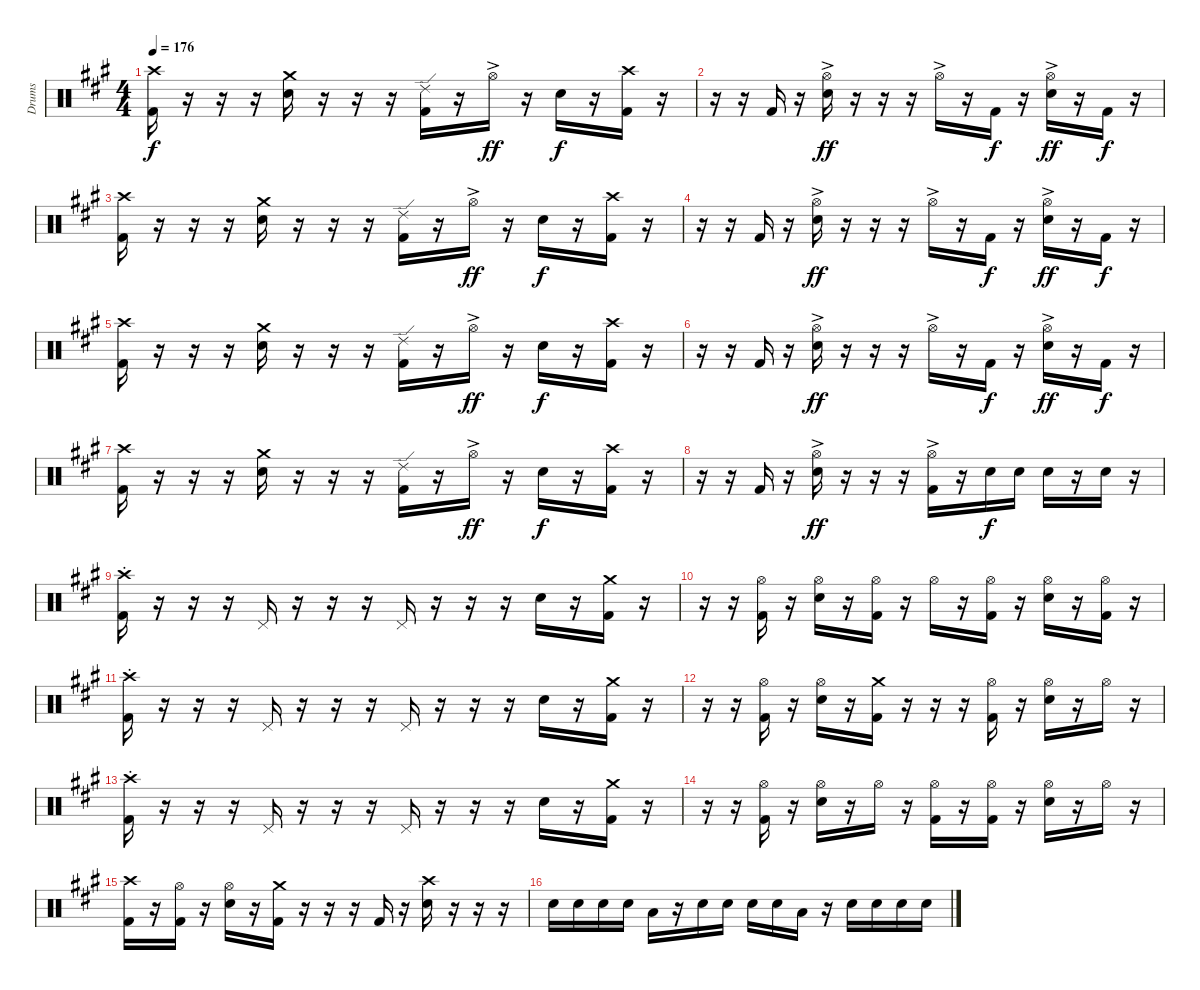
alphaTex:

\track ("Drums" "Drums") {instrument percussion}
\staff {score}
\articulation defaults
\ts (4 4)
\tempo 176
\clef neutral
\ks a
("Crash high (hit)" "Kick (hit) 2").16{dy f} r.16 r.16 r.16 ("Crash medium (hit)" "Electric Snare (hit)").16 r.16 r.16 r.16 ("Ride (edge) 2" "Kick (hit) 2").16 r.16 "Hi-Hat (open)"{ac}.16{dy ff} r.16 "Electric Snare (hit)".16{dy f} r.16 ("Crash high (hit)" "Kick (hit) 2").16 r.16 |
r.16 r.16 "Kick (hit) 2".16 r.16 ("Hi-Hat (open)"{ac} "Electric Snare (hit)").16{dy ff} r.16 r.16 r.16 "Hi-Hat (open)"{ac}.16 r.16 "Kick (hit) 2".16{dy f} r.16 ("Hi-Hat (open)"{ac} "Electric Snare (hit)").16{dy ff} r.16 "Kick (hit) 2".16{dy f} r.16 |
("Crash high (hit)" "Kick (hit) 2").16 r.16 r.16 r.16 ("Crash medium (hit)" "Electric Snare (hit)").16 r.16 r.16 r.16 ("Ride (edge) 2" "Kick (hit) 2").16 r.16 "Hi-Hat (open)"{ac}.16{dy ff} r.16 "Electric Snare (hit)".16{dy f} r.16 ("Crash high (hit)" "Kick (hit) 2").16 r.16 |
r.16 r.16 "Kick (hit) 2".16 r.16 ("Hi-Hat (open)"{ac} "Electric Snare (hit)").16{dy ff} r.16 r.16 r.16 "Hi-Hat (open)"{ac}.16 r.16 "Kick (hit) 2".16{dy f} r.16 ("Hi-Hat (open)"{ac} "Electric Snare (hit)").16{dy ff} r.16 "Kick (hit) 2".16{dy f} r.16 |
("Crash high (hit)" "Kick (hit) 2").16 r.16 r.16 r.16 ("Crash medium (hit)" "Electric Snare (hit)").16 r.16 r.16 r.16 ("Ride (edge) 2" "Kick (hit) 2").16 r.16 "Hi-Hat (open)"{ac}.16{dy ff} r.16 "Electric Snare (hit)".16{dy f} r.16 ("Crash high (hit)" "Kick (hit) 2").16 r.16 |
r.16 r.16 "Kick (hit) 2".16 r.16 ("Hi-Hat (open)"{ac} "Electric Snare (hit)").16{dy ff} r.16 r.16 r.16 "Hi-Hat (open)"{ac}.16 r.16 "Kick (hit) 2".16{dy f} r.16 ("Hi-Hat (open)"{ac} "Electric Snare (hit)").16{dy ff} r.16 "Kick (hit) 2".16{dy f} r.16 |
("Crash high (hit)" "Kick (hit) 2").16 r.16 r.16 r.16 ("Crash medium (hit)" "Electric Snare (hit)").16 r.16 r.16 r.16 ("Ride (edge) 2" "Kick (hit) 2").16 r.16 "Hi-Hat (open)"{ac}.16{dy ff} r.16 "Electric Snare (hit)".16{dy f} r.16 ("Crash high (hit)" "Kick (hit) 2").16 r.16 |
r.16 r.16 "Kick (hit) 2".16 r.16 ("Hi-Hat (open)"{ac} "Electric Snare (hit)").16{dy ff} r.16 r.16 r.16 ("Hi-Hat (open)"{ac} "Kick (hit) 2").16 r.16 "Electric Snare (hit)".16{dy f} "Electric Snare (hit)".16 "Electric Snare (hit)".16 r.16 "Electric Snare (hit)".16 r.16 |
("Crash high (hit)"{st} "Kick (hit) 2").16 r.16 r.16 r.16 "Pedal Hi-Hat (hit)".16 r.16 r.16 r.16 "Pedal Hi-Hat (hit)".16 r.16 r.16 r.16 "Electric Snare (hit)".16 r.16 ("Crash medium (hit)" "Kick (hit) 2").16 r.16 |
r.16 r.16 ("Hi-Hat (open)" "Kick (hit) 2").16 r.16 ("Hi-Hat (open)" "Electric Snare (hit)").16 r.16 ("Hi-Hat (open)" "Kick (hit) 2").16 r.16 "Hi-Hat (open)".16 r.16 ("Hi-Hat (open)" "Kick (hit) 2").16 r.16 ("Hi-Hat (open)" "Electric Snare (hit)").16 r.16 ("Hi-Hat (open)" "Kick (hit) 2").16 r.16 |
("Crash high (hit)"{st} "Kick (hit) 2").16 r.16 r.16 r.16 "Pedal Hi-Hat (hit)".16 r.16 r.16 r.16 "Pedal Hi-Hat (hit)".16 r.16 r.16 r.16 "Electric Snare (hit)".16 r.16 ("Crash medium (hit)" "Kick (hit) 2").16 r.16 |
r.16 r.16 ("Hi-Hat (open)" "Kick (hit) 2").16 r.16 ("Hi-Hat (open)" "Electric Snare (hit)").16 r.16 ("Crash medium (hit)" "Kick (hit) 2").16 r.16 r.16 r.16 ("Hi-Hat (open)" "Kick (hit) 2").16 r.16 ("Hi-Hat (open)" "Electric Snare (hit)").16 r.16 "Hi-Hat (open)".16 r.16 |
("Crash high (hit)"{st} "Kick (hit) 2").16 r.16 r.16 r.16 "Pedal Hi-Hat (hit)".16 r.16 r.16 r.16 "Pedal Hi-Hat (hit)".16 r.16 r.16 r.16 "Electric Snare (hit)".16 r.16 ("Crash medium (hit)" "Kick (hit) 2").16 r.16 |
r.16 r.16 ("Hi-Hat (open)" "Kick (hit) 2").16 r.16 ("Hi-Hat (open)" "Electric Snare (hit)").16 r.16 "Hi-Hat (open)".16 r.16 ("Hi-Hat (open)" "Kick (hit) 2").16 r.16 ("Hi-Hat (open)" "Kick (hit) 2").16 r.16 ("Hi-Hat (open)" "Electric Snare (hit)").16 r.16 "Hi-Hat (open)".16 r.16 |
("Crash high (hit)" "Kick (hit) 2").16 r.16 ("Hi-Hat (open)" "Kick (hit) 2").16 r.16 ("Hi-Hat (open)" "Electric Snare (hit)").16 r.16 ("Crash medium (hit)" "Kick (hit) 2").16 r.16 r.16 r.16 "Kick (hit) 2".16 r.16 ("Crash high (hit)" "Electric Snare (hit)").16 r.16 r.16 r.16 |
"Electric Snare (hit)".16 "Electric Snare (hit)".16 "Electric Snare (hit)".16 "Electric Snare (hit)".16 "Low Tom (hit)".16 r.16 "Electric Snare (hit)".16 "Electric Snare (hit)".16 "Electric Snare (hit)".16 "Electric Snare (hit)".16 "Low Tom (hit)".16 r.16 "Electric Snare (hit)".16 "Electric Snare (hit)".16 "Electric Snare (hit)".16 "Electric Snare (hit)".16
